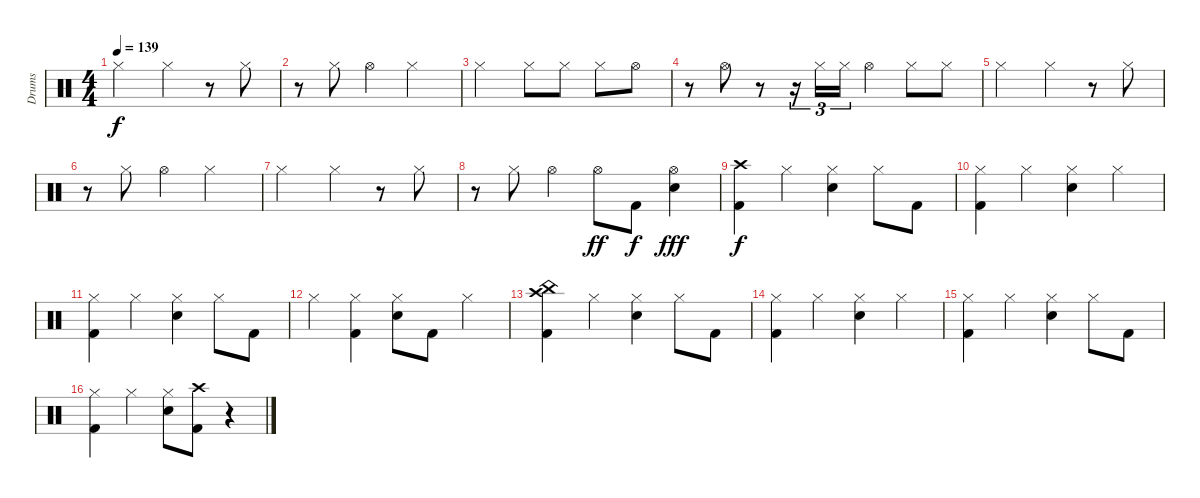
\track ("Drums" "Drums") {instrument percussion}
\staff {score}
\articulation defaults
\ts (4 4)
\tempo 139
\clef neutral
\ks c "Hi-Hat (closed)".2{dy f} "Hi-Hat (closed)".4
r.8 "Hi-Hat (closed)".8 |
r.8 "Hi-Hat (closed)".8 "Hi-Hat (open)".4 "Hi-Hat (closed)".2 |
"Hi-Hat (closed)".2 "Hi-Hat (closed)".8 "Hi-Hat (closed)".8 "Hi-Hat (closed)".8 "Hi-Hat (open)".8 |
r.8 "Hi-Hat (open)".8 r.8 r.16{tu (3 2)} "Hi-Hat (closed)".16{tu (3 2)} "Hi-Hat (closed)".16{tu (3 2)} "Hi-Hat (open)".4 "Hi-Hat (closed)".8 "Hi-Hat (closed)".8 |
"Hi-Hat (closed)".2 "Hi-Hat (closed)".4 r.8 "Hi-Hat (closed)".8 |
r.8 "Hi-Hat (closed)".8 "Hi-Hat (open)".4 "Hi-Hat (closed)".2 |
"Hi-Hat (closed)".2 "Hi-Hat (closed)".4 r.8 "Hi-Hat (closed)".8 |
r.8 "Hi-Hat (closed)".8 "Hi-Hat (open)".4 "Hi-Hat (open)".8{dy ff} "Kick (hit) 2".8{dy f} ("Hi-Hat (open)" "Snare (hit) 2").4{dy fff} |
("Crash high (hit)" "Kick (hit) 2").4{dy f} "Hi-Hat (closed)".4 ("Hi-Hat (closed)" "Snare (hit) 2").4 "Hi-Hat (closed)".8 "Kick (hit) 2".8 |
("Hi-Hat (closed)" "Kick (hit) 2").4 "Hi-Hat (closed)".4 ("Hi-Hat (closed)" "Snare (hit) 2").4 "Hi-Hat (closed)".4 |
("Hi-Hat (closed)" "Kick (hit) 2").4 "Hi-Hat (closed)".4 ("Hi-Hat (closed)" "Snare (hit) 2").4 "Hi-Hat (closed)".8 "Kick (hit) 2".8 |
"Hi-Hat (closed)".4 ("Hi-Hat (closed)" "Kick (hit) 2").4 ("Hi-Hat (closed)" "Snare (hit) 2").8 "Kick (hit) 2".8 "Hi-Hat (closed)".4 |
("Crash high (hit)" "China (hit)" "Kick (hit) 2").4 "Hi-Hat (closed)".4 ("Hi-Hat (closed)" "Snare (hit) 2").4 "Hi-Hat (closed)".8 "Kick (hit) 2".8 |
("Hi-Hat (closed)" "Kick (hit) 2").4 "Hi-Hat (closed)".4 ("Hi-Hat (closed)" "Snare (hit) 2").4 "Hi-Hat (closed)".4 |
("Hi-Hat (closed)" "Kick (hit) 2").4 "Hi-Hat (closed)".4 ("Hi-Hat (closed)" "Snare (hit) 2").4 "Hi-Hat (closed)".8 "Kick (hit) 2".8 |
("Hi-Hat (closed)" "Kick (hit) 2").4 "Hi-Hat (closed)".4 ("Hi-Hat (closed)" "Snare (hit) 2").8 ("Crash high (hit)" "Kick (hit) 2").8 r.4
